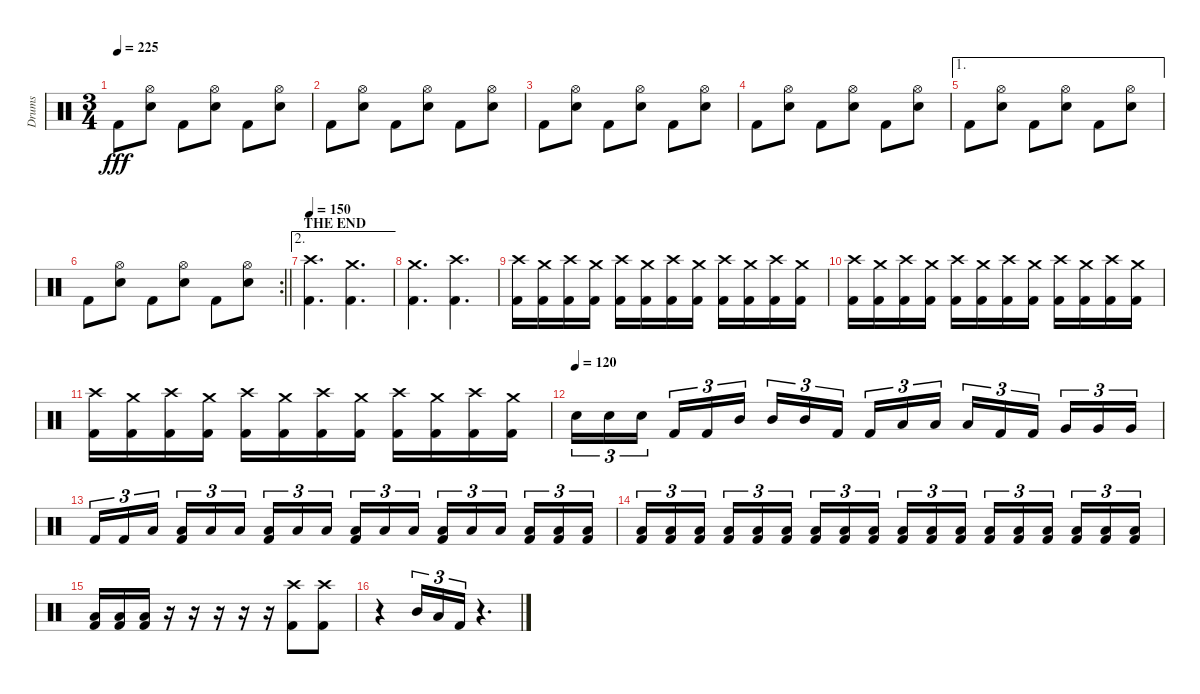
\track ("Drums" "Drums") {instrument percussion}
\staff {score}
\articulation defaults
\ts (3 4)
\tempo 225
\clef neutral
\ks c "Kick (hit) 2".8{dy fff}
("Hi-Hat (open)" "Electric Snare (hit)").8 "Kick (hit) 2".8 ("Hi-Hat (open)" "Electric Snare (hit)").8 "Kick (hit) 2".8 ("Hi-Hat (open)" "Electric Snare (hit)").8 |
"Kick (hit) 2".8 ("Hi-Hat (open)" "Electric Snare (hit)").8 "Kick (hit) 2".8 ("Hi-Hat (open)" "Electric Snare (hit)").8 "Kick (hit) 2".8 ("Hi-Hat (open)" "Electric Snare (hit)").8 |
"Kick (hit) 2".8 ("Hi-Hat (open)" "Electric Snare (hit)").8 "Kick (hit) 2".8 ("Hi-Hat (open)" "Electric Snare (hit)").8 "Kick (hit) 2".8 ("Hi-Hat (open)" "Electric Snare (hit)").8 |
"Kick (hit) 2".8 ("Hi-Hat (open)" "Electric Snare (hit)").8 "Kick (hit) 2".8 ("Hi-Hat (open)" "Electric Snare (hit)").8 "Kick (hit) 2".8 ("Hi-Hat (open)" "Electric Snare (hit)").8 |
\ae 1 "Kick (hit) 2".8
("Hi-Hat (open)" "Electric Snare (hit)").8 "Kick (hit) 2".8 ("Hi-Hat (open)" "Electric Snare (hit)").8 "Kick (hit) 2".8 ("Hi-Hat (open)" "Electric Snare (hit)").8 |
\rc 2
\barLineRight lightlight "Kick (hit) 2".8
("Hi-Hat (open)" "Electric Snare (hit)").8 "Kick (hit) 2".8 ("Hi-Hat (open)" "Electric Snare (hit)").8 "Kick (hit) 2".8 ("Hi-Hat (open)" "Electric Snare (hit)").8 |
\ae 2
\section ("" "THE END")
\tempo 150
("Crash high (hit)" "Kick (hit) 2").4{d} ("Crash medium (hit)" "Kick (hit) 2").4{d} |
("Crash medium (hit)" "Kick (hit) 2").4{d} ("Crash high (hit)" "Kick (hit) 2").4{d} |
("Crash high (hit)" "Kick (hit) 2").16 ("Crash medium (hit)" "Kick (hit) 2").16 ("Crash high (hit)" "Kick (hit) 2").16 ("Crash medium (hit)" "Kick (hit) 2").16 ("Crash high (hit)" "Kick (hit) 2").16 ("Crash medium (hit)" "Kick (hit) 2").16 ("Crash high (hit)" "Kick (hit) 2").16 ("Crash medium (hit)" "Kick (hit) 2").16 ("Crash high (hit)" "Kick (hit) 2").16 ("Crash medium (hit)" "Kick (hit) 2").16 ("Crash high (hit)" "Kick (hit) 2").16 ("Crash medium (hit)" "Kick (hit) 2").16 |
("Crash high (hit)" "Kick (hit) 2").16 ("Crash medium (hit)" "Kick (hit) 2").16 ("Crash high (hit)" "Kick (hit) 2").16 ("Crash medium (hit)" "Kick (hit) 2").16 ("Crash high (hit)" "Kick (hit) 2").16 ("Crash medium (hit)" "Kick (hit) 2").16 ("Crash high (hit)" "Kick (hit) 2").16 ("Crash medium (hit)" "Kick (hit) 2").16 ("Crash high (hit)" "Kick (hit) 2").16 ("Crash medium (hit)" "Kick (hit) 2").16 ("Crash high (hit)" "Kick (hit) 2").16 ("Crash medium (hit)" "Kick (hit) 2").16 |
("Crash high (hit)" "Kick (hit) 2").16 ("Crash medium (hit)" "Kick (hit) 2").16 ("Crash high (hit)" "Kick (hit) 2").16 ("Crash medium (hit)" "Kick (hit) 2").16 ("Crash high (hit)" "Kick (hit) 2").16 ("Crash medium (hit)" "Kick (hit) 2").16 ("Crash high (hit)" "Kick (hit) 2").16 ("Crash medium (hit)" "Kick (hit) 2").16 ("Crash high (hit)" "Kick (hit) 2").16 ("Crash medium (hit)" "Kick (hit) 2").16 ("Crash high (hit)" "Kick (hit) 2").16 ("Crash medium (hit)" "Kick (hit) 2").16 |
\tempo (120)
"Electric Snare (hit)".16{tu (3 2)} "Electric Snare (hit)".16{tu (3 2)} "Electric Snare (hit)".16{tu (3 2) beam splitsecondary} "Kick (hit) 2".16{tu (3 2)} "Kick (hit) 2".16{tu (3 2)} "Mid Tom (hit)".16{tu (3 2)} "Mid Tom (hit)".16{tu (3 2)} "Mid Tom (hit)".16{tu (3 2)} "Kick (hit) 2".16{tu (3 2) beam splitsecondary} "Kick (hit) 2".16{tu (3 2)} "Low Tom (hit)".16{tu (3 2)} "Low Tom (hit)".16{tu (3 2)} "Low Tom (hit)".16{tu (3 2)} "Kick (hit) 2".16{tu (3 2)} "Kick (hit) 2".16{tu (3 2) beam splitsecondary} "Very Low Tom (hit)".16{tu (3 2)} "Very Low Tom (hit)".16{tu (3 2)} "Very Low Tom (hit)".16{tu (3 2)} |
"Kick (hit) 2".16{tu (3 2)} "Kick (hit) 2".16{tu (3 2)} "Low Floor Tom (hit)".16{tu (3 2) beam splitsecondary} ("Low Floor Tom (hit)" "Kick (hit) 2").16{tu (3 2)} "Low Floor Tom (hit)".16{tu (3 2)} "Low Floor Tom (hit)".16{tu (3 2)} ("Low Floor Tom (hit)" "Kick (hit) 2").16{tu (3 2)} "Low Floor Tom (hit)".16{tu (3 2)} "Low Floor Tom (hit)".16{tu (3 2) beam splitsecondary} ("Low Floor Tom (hit)" "Kick (hit) 2").16{tu (3 2)} "Low Floor Tom (hit)".16{tu (3 2)} "Low Floor Tom (hit)".16{tu (3 2)} ("Low Floor Tom (hit)" "Kick (hit) 2").16{tu (3 2)} "Low Floor Tom (hit)".16{tu (3 2)} "Low Floor Tom (hit)".16{tu (3 2) beam splitsecondary} ("Low Floor Tom (hit)" "Kick (hit) 2").16{tu (3 2)} ("Low Floor Tom (hit)" "Kick (hit) 2").16{tu (3 2)} ("Low Floor Tom (hit)" "Kick (hit) 2").16{tu (3 2)} |
("Low Floor Tom (hit)" "Kick (hit) 2").16{tu (3 2)} ("Low Floor Tom (hit)" "Kick (hit) 2").16{tu (3 2)} ("Low Floor Tom (hit)" "Kick (hit) 2").16{tu (3 2) beam splitsecondary} ("Low Floor Tom (hit)" "Kick (hit) 2").16{tu (3 2)} ("Low Floor Tom (hit)" "Kick (hit) 2").16{tu (3 2)} ("Low Floor Tom (hit)" "Kick (hit) 2").16{tu (3 2)} ("Low Floor Tom (hit)" "Kick (hit) 2").16{tu (3 2)} ("Low Floor Tom (hit)" "Kick (hit) 2").16{tu (3 2)} ("Low Floor Tom (hit)" "Kick (hit) 2").16{tu (3 2) beam splitsecondary} ("Low Floor Tom (hit)" "Kick (hit) 2").16{tu (3 2)} ("Low Floor Tom (hit)" "Kick (hit) 2").16{tu (3 2)} ("Low Floor Tom (hit)" "Kick (hit) 2").16{tu (3 2)} ("Low Floor Tom (hit)" "Kick (hit) 2").16{tu (3 2)} ("Low Floor Tom (hit)" "Kick (hit) 2").16{tu (3 2)} ("Low Floor Tom (hit)" "Kick (hit) 2").16{tu (3 2) beam splitsecondary} ("Low Floor Tom (hit)" "Kick (hit) 2").16{tu (3 2)} ("Low Floor Tom (hit)" "Kick (hit) 2").16{tu (3 2)} ("Low Floor Tom (hit)" "Kick (hit) 2").16{tu (3 2)} |
("Low Floor Tom (hit)" "Kick (hit) 2").16 ("Low Floor Tom (hit)" "Kick (hit) 2").16 ("Low Floor Tom (hit)" "Kick (hit) 2").16 r.16 r.16 r.16 r.16 r.16 ("Crash high (hit)" "Kick (hit) 2").8 ("Crash high (hit)" "Kick (hit) 2").8 |
r.4 "Mid Tom (hit)".16{tu (3 2)} "Low Tom (hit)".16{tu (3 2)} "Kick (hit) 2".16{tu (3 2)} r.4{d}
